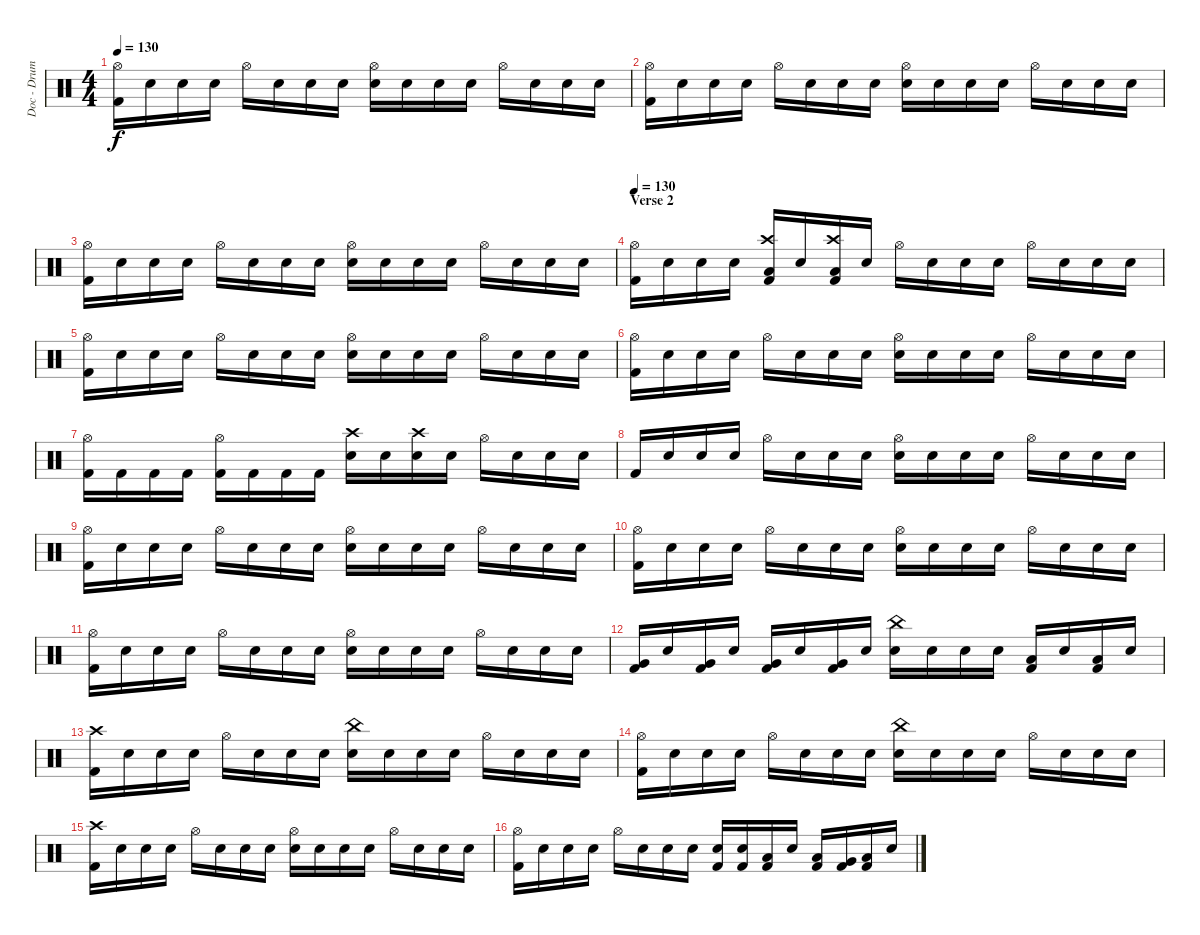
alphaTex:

\track ("Doc - Drums" "Doc - Drum") {instrument percussion}
\staff {score}
\articulation defaults
\ts (4 4)
\tempo 130
\clef neutral
\ks c
("Hi-Hat (open)" "Kick (hit) 2").16{dy f} "Snare (hit)".16 "Snare (hit)".16 "Snare (hit)".16 "Hi-Hat (open)".16 "Snare (hit)".16 "Snare (hit)".16 "Snare (hit)".16 ("Hi-Hat (open)" "Electric Snare (hit)").16 "Snare (hit)".16 "Snare (hit)".16 "Snare (hit)".16 "Hi-Hat (open)".16 "Snare (hit)".16 "Snare (hit)".16 "Snare (hit)".16 |
("Hi-Hat (open)" "Kick (hit) 2").16 "Snare (hit)".16 "Snare (hit)".16 "Snare (hit)".16 "Hi-Hat (open)".16 "Snare (hit)".16 "Snare (hit)".16 "Snare (hit)".16 ("Hi-Hat (open)" "Electric Snare (hit)").16 "Snare (hit)".16 "Snare (hit)".16 "Snare (hit)".16 "Hi-Hat (open)".16 "Snare (hit)".16 "Snare (hit)".16 "Snare (hit)".16 |
("Hi-Hat (open)" "Kick (hit) 2").16 "Snare (hit)".16 "Snare (hit)".16 "Snare (hit)".16 "Hi-Hat (open)".16 "Snare (hit)".16 "Snare (hit)".16 "Snare (hit)".16 ("Hi-Hat (open)" "Electric Snare (hit)").16 "Snare (hit)".16 "Snare (hit)".16 "Snare (hit)".16 "Hi-Hat (open)".16 "Snare (hit)".16 "Snare (hit)".16 "Snare (hit)".16 |
\section ("" "Verse 2")
\tempo 130
("Hi-Hat (open)" "Kick (hit) 2").16{volume 16 balance 8} "Snare (hit)".16 "Snare (hit)".16 "Snare (hit)".16 ("Crash high (hit)" "Low Floor Tom (hit)" "Kick (hit) 2").16 "Snare (hit)".16 ("Crash high (hit)" "Low Floor Tom (hit)" "Kick (hit) 2").16 "Snare (hit)".16 "Hi-Hat (open)".16 "Snare (hit)".16 "Snare (hit)".16 "Snare (hit)".16 "Hi-Hat (open)".16 "Snare (hit)".16 "Snare (hit)".16 "Snare (hit)".16 |
("Hi-Hat (open)" "Kick (hit) 2").16 "Snare (hit)".16 "Snare (hit)".16 "Snare (hit)".16 "Hi-Hat (open)".16 "Snare (hit)".16 "Snare (hit)".16 "Snare (hit)".16 ("Hi-Hat (open)" "Electric Snare (hit)").16 "Snare (hit)".16 "Snare (hit)".16 "Snare (hit)".16 "Hi-Hat (open)".16 "Snare (hit)".16 "Snare (hit)".16 "Snare (hit)".16 |
("Hi-Hat (open)" "Kick (hit) 2").16 "Snare (hit)".16 "Snare (hit)".16 "Snare (hit)".16 "Hi-Hat (open)".16 "Snare (hit)".16 "Snare (hit)".16 "Snare (hit)".16 ("Hi-Hat (open)" "Electric Snare (hit)").16 "Snare (hit)".16 "Snare (hit)".16 "Snare (hit)".16 "Hi-Hat (open)".16 "Snare (hit)".16 "Snare (hit)".16 "Snare (hit)".16 |
("Hi-Hat (open)" "Kick (hit) 2").16 "Kick (hit) 2".16 "Kick (hit) 2".16 "Kick (hit) 2".16 ("Hi-Hat (open)" "Kick (hit) 2").16 "Kick (hit) 2".16 "Kick (hit) 2".16 "Kick (hit) 2".16 ("Crash high (hit)" "Electric Snare (hit)").16 "Snare (hit)".16 ("Crash high (hit)" "Electric Snare (hit)").16 "Snare (hit)".16 "Hi-Hat (open)".16 "Snare (hit)".16 "Snare (hit)".16 "Snare (hit)".16 |
"Kick (hit) 2".16 "Snare (hit)".16 "Snare (hit)".16 "Snare (hit)".16 "Hi-Hat (open)".16 "Snare (hit)".16 "Snare (hit)".16 "Snare (hit)".16 ("Hi-Hat (open)" "Electric Snare (hit)").16 "Snare (hit)".16 "Snare (hit)".16 "Snare (hit)".16 "Hi-Hat (open)".16 "Snare (hit)".16 "Snare (hit)".16 "Snare (hit)".16 |
("Hi-Hat (open)" "Kick (hit) 2").16 "Snare (hit)".16 "Snare (hit)".16 "Snare (hit)".16 "Hi-Hat (open)".16 "Snare (hit)".16 "Snare (hit)".16 "Snare (hit)".16 ("Hi-Hat (open)" "Electric Snare (hit)").16 "Snare (hit)".16 "Snare (hit)".16 "Snare (hit)".16 "Hi-Hat (open)".16 "Snare (hit)".16 "Snare (hit)".16 "Snare (hit)".16 |
("Hi-Hat (open)" "Kick (hit) 2").16 "Snare (hit)".16 "Snare (hit)".16 "Snare (hit)".16 "Hi-Hat (open)".16 "Snare (hit)".16 "Snare (hit)".16 "Snare (hit)".16 ("Hi-Hat (open)" "Electric Snare (hit)").16 "Snare (hit)".16 "Snare (hit)".16 "Snare (hit)".16 "Hi-Hat (open)".16 "Snare (hit)".16 "Snare (hit)".16 "Snare (hit)".16 |
("Hi-Hat (open)" "Kick (hit) 2").16 "Snare (hit)".16 "Snare (hit)".16 "Snare (hit)".16 "Hi-Hat (open)".16 "Snare (hit)".16 "Snare (hit)".16 "Snare (hit)".16 ("Hi-Hat (open)" "Electric Snare (hit)").16 "Snare (hit)".16 "Snare (hit)".16 "Snare (hit)".16 "Hi-Hat (open)".16 "Snare (hit)".16 "Snare (hit)".16 "Snare (hit)".16 |
("Very Low Tom (hit)" "Kick (hit) 2").16 "Snare (hit)".16 ("Very Low Tom (hit)" "Kick (hit) 2").16 "Snare (hit)".16 ("Very Low Tom (hit)" "Kick (hit) 2").16 "Snare (hit)".16 ("Very Low Tom (hit)" "Kick (hit) 2").16 "Snare (hit)".16 ("China (hit)" "Electric Snare (hit)").16 "Snare (hit)".16 "Snare (hit)".16 "Snare (hit)".16 ("Low Floor Tom (hit)" "Kick (hit) 2").16 "Snare (hit)".16 ("Low Floor Tom (hit)" "Kick (hit) 2").16 "Snare (hit)".16 |
("Crash high (hit)" "Kick (hit) 2").16 "Snare (hit)".16 "Snare (hit)".16 "Snare (hit)".16 "Hi-Hat (open)".16 "Snare (hit)".16 "Snare (hit)".16 "Snare (hit)".16 ("China (hit)" "Electric Snare (hit)").16 "Snare (hit)".16 "Snare (hit)".16 "Snare (hit)".16 "Hi-Hat (open)".16 "Snare (hit)".16 "Snare (hit)".16 "Snare (hit)".16 |
("Hi-Hat (open)" "Kick (hit) 2").16 "Snare (hit)".16 "Snare (hit)".16 "Snare (hit)".16 "Hi-Hat (open)".16 "Snare (hit)".16 "Snare (hit)".16 "Snare (hit)".16 ("China (hit)" "Electric Snare (hit)").16 "Snare (hit)".16 "Snare (hit)".16 "Snare (hit)".16 "Hi-Hat (open)".16 "Snare (hit)".16 "Snare (hit)".16 "Snare (hit)".16 |
("Crash high (hit)" "Kick (hit) 2").16 "Snare (hit)".16 "Snare (hit)".16 "Snare (hit)".16 "Hi-Hat (open)".16 "Snare (hit)".16 "Snare (hit)".16 "Snare (hit)".16 ("Hi-Hat (open)" "Electric Snare (hit)").16 "Snare (hit)".16 "Snare (hit)".16 "Snare (hit)".16 "Hi-Hat (open)".16 "Snare (hit)".16 "Snare (hit)".16 "Snare (hit)".16 |
("Hi-Hat (open)" "Kick (hit) 2").16 "Snare (hit)".16 "Snare (hit)".16 "Snare (hit)".16 "Hi-Hat (open)".16 "Snare (hit)".16 "Snare (hit)".16 "Snare (hit)".16 ("Electric Snare (hit)" "Kick (hit) 2").16 ("Electric Snare (hit)" "Kick (hit) 2").16 ("Low Tom (hit)" "Kick (hit) 2").16 "Snare (hit)".16 ("Low Tom (hit)" "Kick (hit) 2").16 ("Very Low Tom (hit)" "Kick (hit) 2").16 ("Low Floor Tom (hit)" "Kick (hit) 2").16 "Snare (hit)".16
